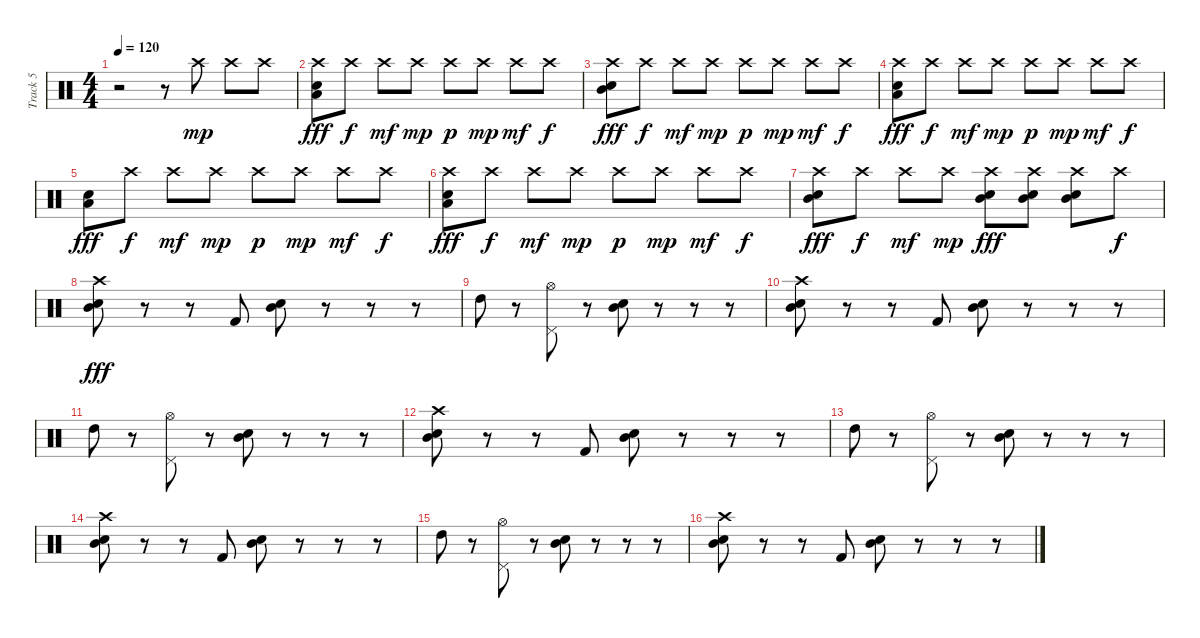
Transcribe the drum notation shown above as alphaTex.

\track ("Track 5" "Track 5") {instrument percussion}
\staff {score}
\articulation defaults
\ts (4 4)
\tempo 120
\clef neutral
\ks c
r.2{dy mf} r.8 "Crash high (hit)".8{dy mp} "Crash high (hit)".8 "Crash high (hit)".8 |
("Crash high (hit)" "Low Tom (hit)" "Electric Snare (hit)").8{dy fff} "Crash high (hit)".8{dy f} "Crash high (hit)".8{dy mf} "Crash high (hit)".8{dy mp} "Crash high (hit)".8{dy p} "Crash high (hit)".8{dy mp} "Crash high (hit)".8{dy mf} "Crash high (hit)".8{dy f} |
("Crash high (hit)" "Snare (hit) 2" "Mid Tom (hit)").8{dy fff} "Crash high (hit)".8{dy f} "Crash high (hit)".8{dy mf} "Crash high (hit)".8{dy mp} "Crash high (hit)".8{dy p} "Crash high (hit)".8{dy mp} "Crash high (hit)".8{dy mf} "Crash high (hit)".8{dy f} |
("Crash high (hit)" "Low Tom (hit)" "Electric Snare (hit)").8{dy fff} "Crash high (hit)".8{dy f} "Crash high (hit)".8{dy mf} "Crash high (hit)".8{dy mp} "Crash high (hit)".8{dy p} "Crash high (hit)".8{dy mp} "Crash high (hit)".8{dy mf} "Crash high (hit)".8{dy f} |
("Low Tom (hit)" "Electric Snare (hit)").8{dy fff} "Crash high (hit)".8{dy f} "Crash high (hit)".8{dy mf} "Crash high (hit)".8{dy mp} "Crash high (hit)".8{dy p} "Crash high (hit)".8{dy mp} "Crash high (hit)".8{dy mf} "Crash high (hit)".8{dy f} |
("Crash high (hit)" "Low Tom (hit)" "Electric Snare (hit)").8{dy fff} "Crash high (hit)".8{dy f} "Crash high (hit)".8{dy mf} "Crash high (hit)".8{dy mp} "Crash high (hit)".8{dy p} "Crash high (hit)".8{dy mp} "Crash high (hit)".8{dy mf} "Crash high (hit)".8{dy f} |
("Crash high (hit)" "Snare (hit) 2" "Mid Tom (hit)").8{dy fff} "Crash high (hit)".8{dy f} "Crash high (hit)".8{dy mf} "Crash high (hit)".8{dy mp} ("Crash high (hit)" "Mid Tom (hit)" "Electric Snare (hit)").8{dy fff} ("Crash high (hit)" "Mid Tom (hit)" "Electric Snare (hit)").8 ("Crash high (hit)" "Mid Tom (hit)" "Electric Snare (hit)").8 "Crash high (hit)".8{dy f} |
("Crash high (hit)" "Mid Tom (hit)" "Snare (hit) 2").8{dy fff} r.8 r.8 "Kick (hit) 2".8 ("Mid Tom (hit)" "Snare (hit) 2").8 r.8 r.8 r.8 |
"High Tom (hit)".8 r.8 ("Hi-Hat (open)" "Pedal Hi-Hat (hit)").8 r.8 ("Mid Tom (hit)" "Snare (hit) 2").8 r.8 r.8 r.8 |
("Crash high (hit)" "Mid Tom (hit)" "Snare (hit) 2").8 r.8 r.8 "Kick (hit) 2".8 ("Mid Tom (hit)" "Snare (hit) 2").8 r.8 r.8 r.8 |
"High Tom (hit)".8 r.8 ("Hi-Hat (open)" "Pedal Hi-Hat (hit)").8 r.8 ("Mid Tom (hit)" "Snare (hit) 2").8 r.8 r.8 r.8 |
("Crash high (hit)" "Mid Tom (hit)" "Snare (hit) 2").8 r.8 r.8 "Kick (hit) 2".8 ("Mid Tom (hit)" "Snare (hit) 2").8 r.8 r.8 r.8 |
"High Tom (hit)".8 r.8 ("Hi-Hat (open)" "Pedal Hi-Hat (hit)").8 r.8 ("Mid Tom (hit)" "Snare (hit) 2").8 r.8 r.8 r.8 |
("Crash high (hit)" "Mid Tom (hit)" "Snare (hit) 2").8 r.8 r.8 "Kick (hit) 2".8 ("Mid Tom (hit)" "Snare (hit) 2").8 r.8 r.8 r.8 |
"High Tom (hit)".8 r.8 ("Hi-Hat (open)" "Pedal Hi-Hat (hit)").8 r.8 ("Mid Tom (hit)" "Snare (hit) 2").8 r.8 r.8 r.8 |
("Crash high (hit)" "Mid Tom (hit)" "Snare (hit) 2").8 r.8 r.8 "Kick (hit) 2".8 ("Mid Tom (hit)" "Snare (hit) 2").8 r.8 r.8 r.8
